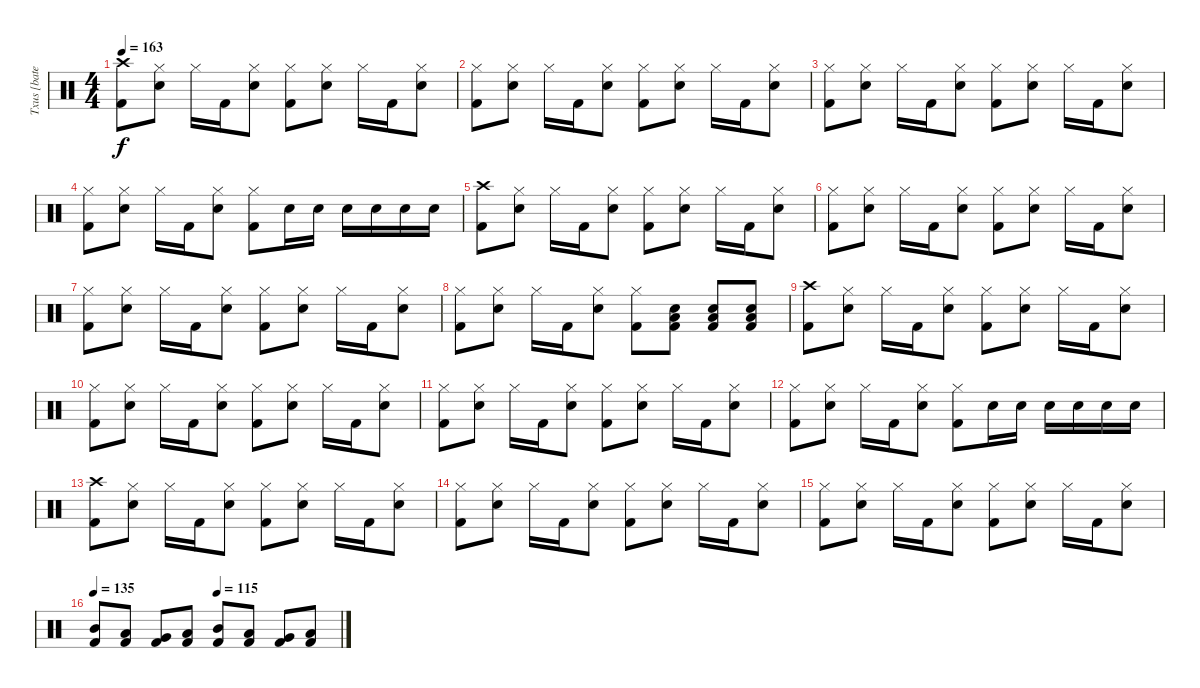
\track ("Txus [bateria]" "Txus [bate") {instrument percussion}
\staff {score}
\articulation defaults
\ts (4 4)
\tempo 163
\clef neutral
\ks c
("Crash high (hit)" "Kick (hit) 2").8{dy f} ("Hi-Hat (closed)" "Snare (hit) 2").8 "Hi-Hat (closed)".16 "Kick (hit) 2".16 ("Hi-Hat (closed)" "Snare (hit) 2").8 ("Hi-Hat (closed)" "Kick (hit) 2").8 ("Hi-Hat (closed)" "Snare (hit) 2").8 "Hi-Hat (closed)".16 "Kick (hit) 2".16 ("Hi-Hat (closed)" "Snare (hit) 2").8 |
("Hi-Hat (closed)" "Kick (hit) 2").8 ("Hi-Hat (closed)" "Snare (hit) 2").8 "Hi-Hat (closed)".16 "Kick (hit) 2".16 ("Hi-Hat (closed)" "Snare (hit) 2").8 ("Hi-Hat (closed)" "Kick (hit) 2").8 ("Hi-Hat (closed)" "Snare (hit) 2").8 "Hi-Hat (closed)".16 "Kick (hit) 2".16 ("Hi-Hat (closed)" "Snare (hit) 2").8 |
("Hi-Hat (closed)" "Kick (hit) 2").8 ("Hi-Hat (closed)" "Snare (hit) 2").8 "Hi-Hat (closed)".16 "Kick (hit) 2".16 ("Hi-Hat (closed)" "Snare (hit) 2").8 ("Hi-Hat (closed)" "Kick (hit) 2").8 ("Hi-Hat (closed)" "Snare (hit) 2").8 "Hi-Hat (closed)".16 "Kick (hit) 2".16 ("Hi-Hat (closed)" "Snare (hit) 2").8 |
("Hi-Hat (closed)" "Kick (hit) 2").8 ("Hi-Hat (closed)" "Snare (hit) 2").8 "Hi-Hat (closed)".16 "Kick (hit) 2".16 ("Hi-Hat (closed)" "Snare (hit) 2").8 ("Hi-Hat (closed)" "Kick (hit) 2").8 "Snare (hit) 2".16 "Snare (hit) 2".16 "Snare (hit) 2".16 "Snare (hit) 2".16 "Snare (hit) 2".16 "Snare (hit) 2".16 |
("Crash high (hit)" "Kick (hit) 2").8 ("Hi-Hat (closed)" "Snare (hit) 2").8 "Hi-Hat (closed)".16 "Kick (hit) 2".16 ("Hi-Hat (closed)" "Snare (hit) 2").8 ("Hi-Hat (closed)" "Kick (hit) 2").8 ("Hi-Hat (closed)" "Snare (hit) 2").8 "Hi-Hat (closed)".16 "Kick (hit) 2".16 ("Hi-Hat (closed)" "Snare (hit) 2").8 |
("Hi-Hat (closed)" "Kick (hit) 2").8 ("Hi-Hat (closed)" "Snare (hit) 2").8 "Hi-Hat (closed)".16 "Kick (hit) 2".16 ("Hi-Hat (closed)" "Snare (hit) 2").8 ("Hi-Hat (closed)" "Kick (hit) 2").8 ("Hi-Hat (closed)" "Snare (hit) 2").8 "Hi-Hat (closed)".16 "Kick (hit) 2".16 ("Hi-Hat (closed)" "Snare (hit) 2").8 |
("Hi-Hat (closed)" "Kick (hit) 2").8 ("Hi-Hat (closed)" "Snare (hit) 2").8 "Hi-Hat (closed)".16 "Kick (hit) 2".16 ("Hi-Hat (closed)" "Snare (hit) 2").8 ("Hi-Hat (closed)" "Kick (hit) 2").8 ("Hi-Hat (closed)" "Snare (hit) 2").8 "Hi-Hat (closed)".16 "Kick (hit) 2".16 ("Hi-Hat (closed)" "Snare (hit) 2").8 |
("Hi-Hat (closed)" "Kick (hit) 2").8 ("Hi-Hat (closed)" "Snare (hit) 2").8 "Hi-Hat (closed)".16 "Kick (hit) 2".16 ("Hi-Hat (closed)" "Snare (hit) 2").8 ("Hi-Hat (closed)" "Kick (hit) 2").8 ("Low Floor Tom (hit)" "Snare (hit) 2" "Kick (hit) 2").8 ("Low Floor Tom (hit)" "Snare (hit) 2" "Kick (hit) 2").8 ("Low Floor Tom (hit)" "Snare (hit) 2" "Kick (hit) 2").8 |
("Crash high (hit)" "Kick (hit) 2").8 ("Hi-Hat (closed)" "Snare (hit) 2").8 "Hi-Hat (closed)".16 "Kick (hit) 2".16 ("Hi-Hat (closed)" "Snare (hit) 2").8 ("Hi-Hat (closed)" "Kick (hit) 2").8 ("Hi-Hat (closed)" "Snare (hit) 2").8 "Hi-Hat (closed)".16 "Kick (hit) 2".16 ("Hi-Hat (closed)" "Snare (hit) 2").8 |
("Hi-Hat (closed)" "Kick (hit) 2").8 ("Hi-Hat (closed)" "Snare (hit) 2").8 "Hi-Hat (closed)".16 "Kick (hit) 2".16 ("Hi-Hat (closed)" "Snare (hit) 2").8 ("Hi-Hat (closed)" "Kick (hit) 2").8 ("Hi-Hat (closed)" "Snare (hit) 2").8 "Hi-Hat (closed)".16 "Kick (hit) 2".16 ("Hi-Hat (closed)" "Snare (hit) 2").8 |
("Hi-Hat (closed)" "Kick (hit) 2").8 ("Hi-Hat (closed)" "Snare (hit) 2").8 "Hi-Hat (closed)".16 "Kick (hit) 2".16 ("Hi-Hat (closed)" "Snare (hit) 2").8 ("Hi-Hat (closed)" "Kick (hit) 2").8 ("Hi-Hat (closed)" "Snare (hit) 2").8 "Hi-Hat (closed)".16 "Kick (hit) 2".16 ("Hi-Hat (closed)" "Snare (hit) 2").8 |
("Hi-Hat (closed)" "Kick (hit) 2").8 ("Hi-Hat (closed)" "Snare (hit) 2").8 "Hi-Hat (closed)".16 "Kick (hit) 2".16 ("Hi-Hat (closed)" "Snare (hit) 2").8 ("Hi-Hat (closed)" "Kick (hit) 2").8 "Snare (hit) 2".16 "Snare (hit) 2".16 "Snare (hit) 2".16 "Snare (hit) 2".16 "Snare (hit) 2".16 "Snare (hit) 2".16 |
("Crash high (hit)" "Kick (hit) 2").8 ("Hi-Hat (closed)" "Snare (hit) 2").8 "Hi-Hat (closed)".16 "Kick (hit) 2".16 ("Hi-Hat (closed)" "Snare (hit) 2").8 ("Hi-Hat (closed)" "Kick (hit) 2").8 ("Hi-Hat (closed)" "Snare (hit) 2").8 "Hi-Hat (closed)".16 "Kick (hit) 2".16 ("Hi-Hat (closed)" "Snare (hit) 2").8 |
("Hi-Hat (closed)" "Kick (hit) 2").8 ("Hi-Hat (closed)" "Snare (hit) 2").8 "Hi-Hat (closed)".16 "Kick (hit) 2".16 ("Hi-Hat (closed)" "Snare (hit) 2").8 ("Hi-Hat (closed)" "Kick (hit) 2").8 ("Hi-Hat (closed)" "Snare (hit) 2").8 "Hi-Hat (closed)".16 "Kick (hit) 2".16 ("Hi-Hat (closed)" "Snare (hit) 2").8 |
("Hi-Hat (closed)" "Kick (hit) 2").8 ("Hi-Hat (closed)" "Snare (hit) 2").8 "Hi-Hat (closed)".16 "Kick (hit) 2".16 ("Hi-Hat (closed)" "Snare (hit) 2").8 ("Hi-Hat (closed)" "Kick (hit) 2").8 ("Hi-Hat (closed)" "Snare (hit) 2").8 "Hi-Hat (closed)".16 "Kick (hit) 2".16 ("Hi-Hat (closed)" "Snare (hit) 2").8 |
\tempo 135
\tempo (115 0.5)
("Mid Tom (hit)" "Kick (hit) 2").8 ("Low Tom (hit)" "Kick (hit) 2").8 ("Very Low Tom (hit)" "Kick (hit) 2").8 ("Low Floor Tom (hit)" "Kick (hit) 2").8 ("Mid Tom (hit)" "Kick (hit) 2").8 ("Low Tom (hit)" "Kick (hit) 2").8 ("Very Low Tom (hit)" "Kick (hit) 2").8 ("Low Floor Tom (hit)" "Kick (hit) 2").8
